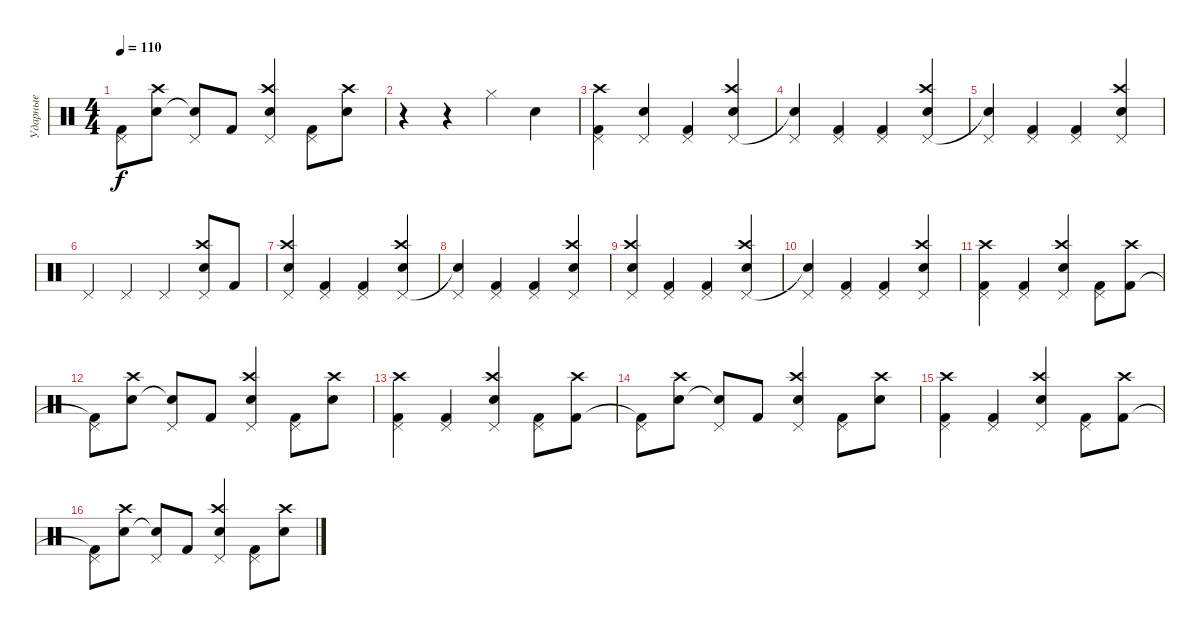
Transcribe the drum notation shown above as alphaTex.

\track ("Ударные" "Ударные") {instrument percussion}
\staff {score}
\articulation defaults
\ts (4 4)
\tempo 110
\clef neutral
\ks c
("Pedal Hi-Hat (hit)" "Kick (hit) 2"{t}).8{dy f} ("Crash high (hit)" "Snare (hit) 2").8 ("Pedal Hi-Hat (hit)" "Snare (hit) 2"{t}).8 "Kick (hit) 2".8 ("Crash high (hit)" "Pedal Hi-Hat (hit)" "Electric Snare (hit)").4 ("Pedal Hi-Hat (hit)" "Kick (hit) 2").8 ("Crash high (hit)" "Snare (hit) 2").8 |
r.4 r.4 "Hi-Hat (closed)".4 "Electric Snare (hit)".4 |
("Crash high (hit)" "Pedal Hi-Hat (hit)" "Kick (hit) 2").4 ("Pedal Hi-Hat (hit)" "Electric Snare (hit)").4 ("Pedal Hi-Hat (hit)" "Kick (hit) 2").4 ("Crash high (hit)" "Pedal Hi-Hat (hit)" "Electric Snare (hit)").4 |
("Pedal Hi-Hat (hit)" "Electric Snare (hit)"{t}).4 ("Pedal Hi-Hat (hit)" "Kick (hit) 2").4 ("Pedal Hi-Hat (hit)" "Kick (hit) 2").4 ("Crash high (hit)" "Pedal Hi-Hat (hit)" "Electric Snare (hit)").4 |
("Pedal Hi-Hat (hit)" "Electric Snare (hit)"{t}).4 ("Pedal Hi-Hat (hit)" "Kick (hit) 2").4 ("Pedal Hi-Hat (hit)" "Kick (hit) 2").4 ("Crash high (hit)" "Pedal Hi-Hat (hit)" "Electric Snare (hit)").4 |
"Pedal Hi-Hat (hit)".4 "Pedal Hi-Hat (hit)".4 "Pedal Hi-Hat (hit)".4 ("Crash high (hit)" "Pedal Hi-Hat (hit)" "Snare (hit) 2").8 "Kick (hit) 2".8 |
("Crash high (hit)" "Pedal Hi-Hat (hit)" "Electric Snare (hit)").4 ("Pedal Hi-Hat (hit)" "Kick (hit) 2").4 ("Pedal Hi-Hat (hit)" "Kick (hit) 2").4 ("Crash high (hit)" "Pedal Hi-Hat (hit)" "Electric Snare (hit)").4 |
("Pedal Hi-Hat (hit)" "Electric Snare (hit)"{t}).4 ("Pedal Hi-Hat (hit)" "Kick (hit) 2").4 ("Pedal Hi-Hat (hit)" "Kick (hit) 2").4 ("Crash high (hit)" "Pedal Hi-Hat (hit)" "Electric Snare (hit)").4 |
("Crash high (hit)" "Pedal Hi-Hat (hit)" "Electric Snare (hit)").4 ("Pedal Hi-Hat (hit)" "Kick (hit) 2").4 ("Pedal Hi-Hat (hit)" "Kick (hit) 2").4 ("Crash high (hit)" "Pedal Hi-Hat (hit)" "Electric Snare (hit)").4 |
("Pedal Hi-Hat (hit)" "Electric Snare (hit)"{t}).4 ("Pedal Hi-Hat (hit)" "Kick (hit) 2").4 ("Pedal Hi-Hat (hit)" "Kick (hit) 2").4 ("Crash high (hit)" "Pedal Hi-Hat (hit)" "Electric Snare (hit)").4 |
("Crash high (hit)" "Pedal Hi-Hat (hit)" "Kick (hit) 2").4 ("Pedal Hi-Hat (hit)" "Kick (hit) 2").4 ("Crash high (hit)" "Pedal Hi-Hat (hit)" "Electric Snare (hit)").4 ("Pedal Hi-Hat (hit)" "Kick (hit) 2").8 ("Crash high (hit)" "Kick (hit) 2").8 |
("Pedal Hi-Hat (hit)" "Kick (hit) 2"{t}).8 ("Crash high (hit)" "Snare (hit) 2").8 ("Pedal Hi-Hat (hit)" "Snare (hit) 2"{t}).8 "Kick (hit) 2".8 ("Crash high (hit)" "Pedal Hi-Hat (hit)" "Electric Snare (hit)").4 ("Pedal Hi-Hat (hit)" "Kick (hit) 2").8 ("Crash high (hit)" "Snare (hit) 2").8 |
("Crash high (hit)" "Pedal Hi-Hat (hit)" "Kick (hit) 2").4 ("Pedal Hi-Hat (hit)" "Kick (hit) 2").4 ("Crash high (hit)" "Pedal Hi-Hat (hit)" "Electric Snare (hit)").4 ("Pedal Hi-Hat (hit)" "Kick (hit) 2").8 ("Crash high (hit)" "Kick (hit) 2").8 |
("Pedal Hi-Hat (hit)" "Kick (hit) 2"{t}).8 ("Crash high (hit)" "Snare (hit) 2").8 ("Pedal Hi-Hat (hit)" "Snare (hit) 2"{t}).8 "Kick (hit) 2".8 ("Crash high (hit)" "Pedal Hi-Hat (hit)" "Electric Snare (hit)").4 ("Pedal Hi-Hat (hit)" "Kick (hit) 2").8 ("Crash high (hit)" "Snare (hit) 2").8 |
("Crash high (hit)" "Pedal Hi-Hat (hit)" "Kick (hit) 2").4 ("Pedal Hi-Hat (hit)" "Kick (hit) 2").4 ("Crash high (hit)" "Pedal Hi-Hat (hit)" "Electric Snare (hit)").4 ("Pedal Hi-Hat (hit)" "Kick (hit) 2").8 ("Crash high (hit)" "Kick (hit) 2").8 |
("Pedal Hi-Hat (hit)" "Kick (hit) 2"{t}).8 ("Crash high (hit)" "Snare (hit) 2").8 ("Pedal Hi-Hat (hit)" "Snare (hit) 2"{t}).8 "Kick (hit) 2".8 ("Crash high (hit)" "Pedal Hi-Hat (hit)" "Electric Snare (hit)").4 ("Pedal Hi-Hat (hit)" "Kick (hit) 2").8 ("Crash high (hit)" "Snare (hit) 2").8
